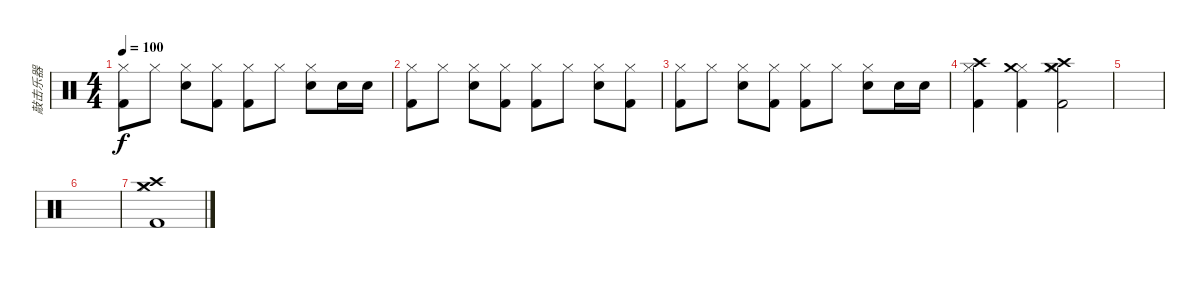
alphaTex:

\track ("敲击乐器" "敲击乐器") {instrument percussion}
\staff {score}
\articulation defaults
\ts (4 4)
\tempo 100
\clef neutral
\ks c
("Hi-Hat (closed)" "Kick (hit) 2").8{dy f} "Hi-Hat (closed)".8 ("Hi-Hat (closed)" "Electric Snare (hit)").8 ("Hi-Hat (closed)" "Kick (hit) 2").8 ("Hi-Hat (closed)" "Kick (hit) 2").8 "Hi-Hat (closed)".8 ("Hi-Hat (closed)" "Electric Snare (hit)").8 "Electric Snare (hit)".16 "Electric Snare (hit)".16 |
("Hi-Hat (closed)" "Kick (hit) 2").8 "Hi-Hat (closed)".8 ("Hi-Hat (closed)" "Electric Snare (hit)").8 ("Hi-Hat (closed)" "Kick (hit) 2").8 ("Hi-Hat (closed)" "Kick (hit) 2").8 "Hi-Hat (closed)".8 ("Hi-Hat (closed)" "Electric Snare (hit)").8 ("Hi-Hat (closed)" "Kick (hit) 2").8 |
("Hi-Hat (closed)" "Kick (hit) 2").8 "Hi-Hat (closed)".8 ("Hi-Hat (closed)" "Electric Snare (hit)").8 ("Hi-Hat (closed)" "Kick (hit) 2").8 ("Hi-Hat (closed)" "Kick (hit) 2").8 "Hi-Hat (closed)".8 ("Hi-Hat (closed)" "Electric Snare (hit)").8 "Electric Snare (hit)".16 "Electric Snare (hit)".16 |
("Hi-Hat (closed)" "Kick (hit) 2" "Crash high (hit)").4 ("Hi-Hat (closed)" "Kick (hit) 2" "Crash medium (hit)").4 ("Hi-Hat (closed)" "Kick (hit) 2" "Crash high (hit)" "Crash medium (hit)").2 |
|
|
("Hi-Hat (closed)" "Kick (hit) 2" "Crash high (hit)" "Crash medium (hit)").1
